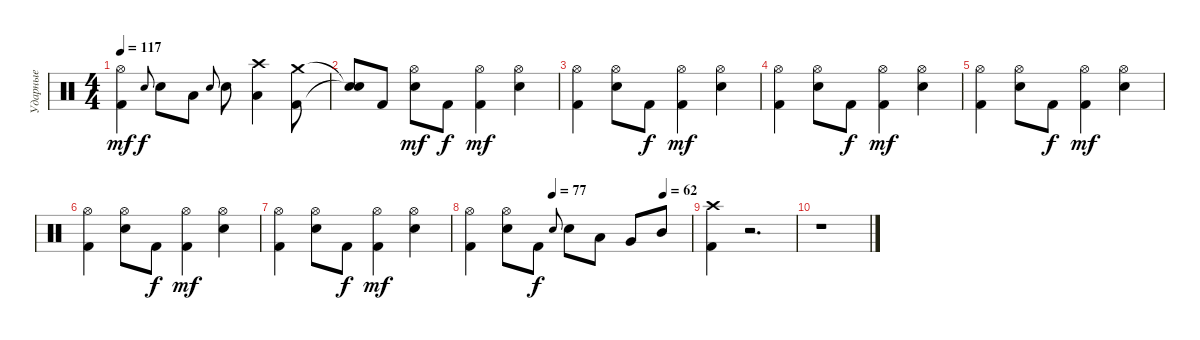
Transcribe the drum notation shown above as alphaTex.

\track ("Ударные" "Ударные") {instrument percussion}
\staff {score}
\articulation defaults
\ts (4 4)
\tempo 117
\clef neutral
\ks c
("Hi-Hat (open)" "Kick (hit) 2").4{dy mf} "Electric Snare (hit)".8{gr onbeat dy f} "Electric Snare (hit)".8 "Low Tom (hit)".8 "Electric Snare (hit)".8{gr onbeat} "Electric Snare (hit)".8 ("Crash high (hit)" "Low Tom (hit)").4 ("Crash medium (hit)" "Kick (hit) 2").8 |
("Snare (hit)"{t} "Snare (hit)"{t}).8 "Kick (hit) 2".8 ("Hi-Hat (open)" "Electric Snare (hit)").8{dy mf} "Kick (hit) 2".8{dy f} ("Hi-Hat (open)" "Kick (hit) 2").4{dy mf} ("Hi-Hat (open)" "Electric Snare (hit)").4 |
("Hi-Hat (open)" "Kick (hit) 2").4 ("Hi-Hat (open)" "Electric Snare (hit)").8 "Kick (hit) 2".8{dy f} ("Hi-Hat (open)" "Kick (hit) 2").4{dy mf} ("Hi-Hat (open)" "Electric Snare (hit)").4 |
("Hi-Hat (open)" "Kick (hit) 2").4 ("Hi-Hat (open)" "Electric Snare (hit)").8 "Kick (hit) 2".8{dy f} ("Hi-Hat (open)" "Kick (hit) 2").4{dy mf} ("Hi-Hat (open)" "Electric Snare (hit)").4 |
("Hi-Hat (open)" "Kick (hit) 2").4 ("Hi-Hat (open)" "Electric Snare (hit)").8 "Kick (hit) 2".8{dy f} ("Hi-Hat (open)" "Kick (hit) 2").4{dy mf} ("Hi-Hat (open)" "Electric Snare (hit)").4 |
("Hi-Hat (open)" "Kick (hit) 2").4 ("Hi-Hat (open)" "Electric Snare (hit)").8 "Kick (hit) 2".8{dy f} ("Hi-Hat (open)" "Kick (hit) 2").4{dy mf} ("Hi-Hat (open)" "Electric Snare (hit)").4 |
("Hi-Hat (open)" "Kick (hit) 2").4 ("Hi-Hat (open)" "Electric Snare (hit)").8 "Kick (hit) 2".8{dy f} ("Hi-Hat (open)" "Kick (hit) 2").4{dy mf} ("Hi-Hat (open)" "Electric Snare (hit)").4 |
\tempo (77 0.375)
\tempo (62 0.875)
("Hi-Hat (open)" "Kick (hit) 2").4 ("Hi-Hat (open)" "Electric Snare (hit)").8 "Kick (hit) 2".8{dy f} "Electric Snare (hit)".8{gr onbeat} "Electric Snare (hit)".8 "Low Tom (hit)".8 "Very Low Tom (hit)".8 "Mid Tom (hit)".8 |
("Crash high (hit)" "Kick (hit) 2").4 r.2{d} |
r.1
